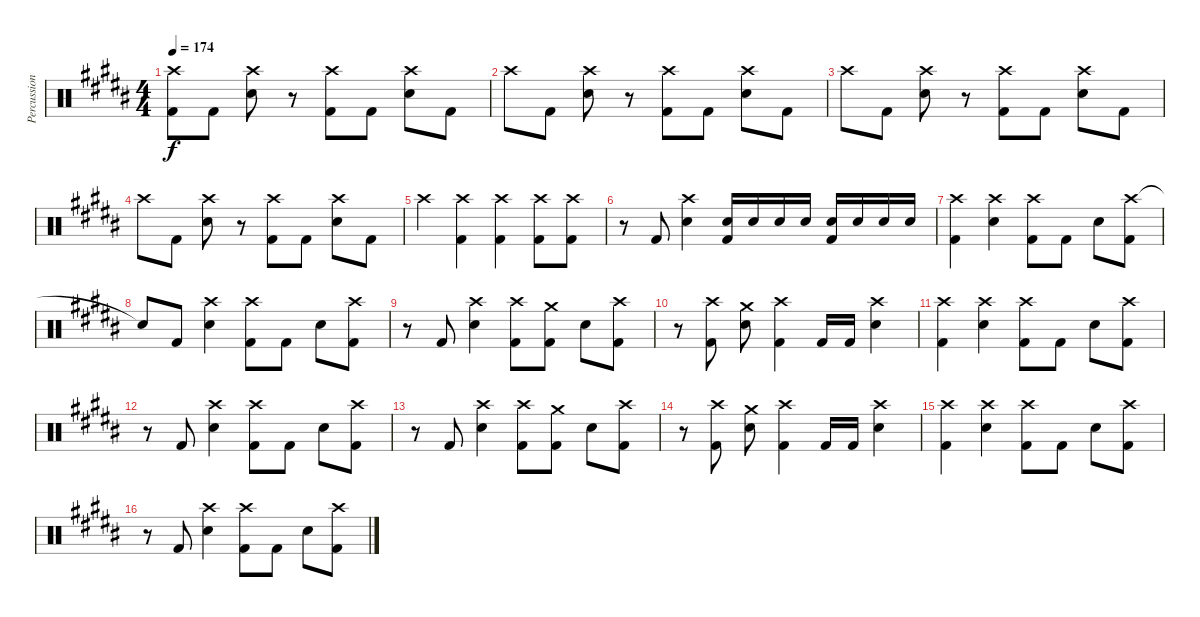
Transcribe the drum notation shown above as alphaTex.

\track ("Percussion" "Percussion") {instrument percussion}
\staff {score}
\articulation defaults
\ts (4 4)
\tempo 174
\clef neutral
\ks b
("Crash high (hit)" "Kick (hit) 2").8{dy f} "Kick (hit) 2".8 ("Crash high (hit)" "Electric Snare (hit)").8 r.8 ("Crash high (hit)" "Kick (hit) 2").8 "Kick (hit) 2".8 ("Crash high (hit)" "Electric Snare (hit)").8 "Kick (hit) 2".8 |
"Crash high (hit)".8 "Kick (hit) 2".8 ("Crash high (hit)" "Electric Snare (hit)").8 r.8 ("Crash high (hit)" "Kick (hit) 2").8 "Kick (hit) 2".8 ("Crash high (hit)" "Electric Snare (hit)").8 "Kick (hit) 2".8 |
"Crash high (hit)".8 "Kick (hit) 2".8 ("Crash high (hit)" "Electric Snare (hit)").8 r.8 ("Crash high (hit)" "Kick (hit) 2").8 "Kick (hit) 2".8 ("Crash high (hit)" "Electric Snare (hit)").8 "Kick (hit) 2".8 |
"Crash high (hit)".8 "Kick (hit) 2".8 ("Crash high (hit)" "Electric Snare (hit)").8 r.8 ("Crash high (hit)" "Kick (hit) 2").8 "Kick (hit) 2".8 ("Crash high (hit)" "Electric Snare (hit)").8 "Kick (hit) 2".8 |
"Crash high (hit)".4 ("Crash high (hit)" "Kick (hit) 2").4 ("Crash high (hit)" "Kick (hit) 2").4 ("Crash high (hit)" "Kick (hit) 2").8 ("Crash high (hit)" "Kick (hit) 2").8 |
r.8 "Kick (hit) 2".8 ("Crash high (hit)" "Electric Snare (hit)").4 ("Electric Snare (hit)" "Kick (hit) 2").16 "Electric Snare (hit)".16 "Electric Snare (hit)".16 "Electric Snare (hit)".16 ("Electric Snare (hit)" "Kick (hit) 2").16 "Electric Snare (hit)".16 "Electric Snare (hit)".16 "Electric Snare (hit)".16 |
("Crash high (hit)" "Kick (hit) 2").4 ("Crash high (hit)" "Electric Snare (hit)").4 ("Crash high (hit)" "Kick (hit) 2").8 "Kick (hit) 2".8 "Electric Snare (hit)".8 ("Crash high (hit)" "Kick (hit) 2").8 |
"Snare (hit)"{t}.8 "Kick (hit) 2".8 ("Crash high (hit)" "Electric Snare (hit)").4 ("Crash high (hit)" "Kick (hit) 2").8 "Kick (hit) 2".8 "Electric Snare (hit)".8 ("Crash high (hit)" "Kick (hit) 2").8 |
r.8 "Kick (hit) 2".8 ("Crash high (hit)" "Electric Snare (hit)").4 ("Crash high (hit)" "Kick (hit) 2").8 ("Crash medium (hit)" "Kick (hit) 2").8 "Electric Snare (hit)".8 ("Crash high (hit)" "Kick (hit) 2").8 |
r.8 ("Crash high (hit)" "Kick (hit) 2").8 ("Crash medium (hit)" "Electric Snare (hit)").8 ("Crash high (hit)" "Kick (hit) 2").4 "Kick (hit) 2".16 "Kick (hit) 2".16 ("Crash high (hit)" "Electric Snare (hit)").4 |
("Crash high (hit)" "Kick (hit) 2").4 ("Crash high (hit)" "Electric Snare (hit)").4 ("Crash high (hit)" "Kick (hit) 2").8 "Kick (hit) 2".8 "Electric Snare (hit)".8 ("Crash high (hit)" "Kick (hit) 2").8 |
r.8 "Kick (hit) 2".8 ("Crash high (hit)" "Electric Snare (hit)").4 ("Crash high (hit)" "Kick (hit) 2").8 "Kick (hit) 2".8 "Electric Snare (hit)".8 ("Crash high (hit)" "Kick (hit) 2").8 |
r.8 "Kick (hit) 2".8 ("Crash high (hit)" "Electric Snare (hit)").4 ("Crash high (hit)" "Kick (hit) 2").8 ("Crash medium (hit)" "Kick (hit) 2").8 "Electric Snare (hit)".8 ("Crash high (hit)" "Kick (hit) 2").8 |
r.8 ("Crash high (hit)" "Kick (hit) 2").8 ("Crash medium (hit)" "Electric Snare (hit)").8 ("Crash high (hit)" "Kick (hit) 2").4 "Kick (hit) 2".16 "Kick (hit) 2".16 ("Crash high (hit)" "Electric Snare (hit)").4 |
("Crash high (hit)" "Kick (hit) 2").4 ("Crash high (hit)" "Electric Snare (hit)").4 ("Crash high (hit)" "Kick (hit) 2").8 "Kick (hit) 2".8 "Electric Snare (hit)".8 ("Crash high (hit)" "Kick (hit) 2").8 |
r.8 "Kick (hit) 2".8 ("Crash high (hit)" "Electric Snare (hit)").4 ("Crash high (hit)" "Kick (hit) 2").8 "Kick (hit) 2".8 "Electric Snare (hit)".8 ("Crash high (hit)" "Kick (hit) 2").8
